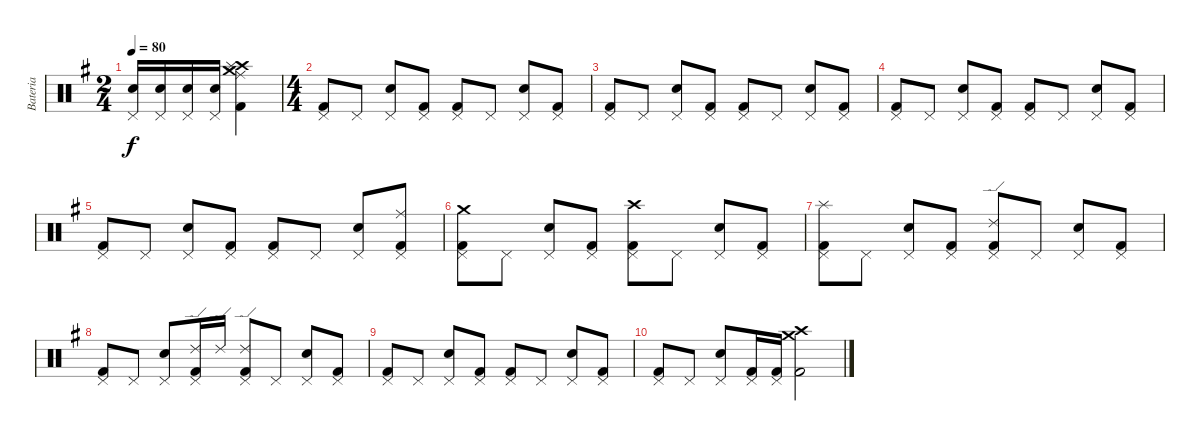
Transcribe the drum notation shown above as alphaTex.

\track ("Bateria" "Bateria") {instrument percussion}
\staff {score}
\articulation defaults
\ts (2 4)
\tempo 80
\clef neutral
\ks g
("Pedal Hi-Hat (hit)" "Snare (hit) 2").16{dy f} ("Pedal Hi-Hat (hit)" "Snare (hit) 2").16 ("Pedal Hi-Hat (hit)" "Snare (hit) 2").16 ("Pedal Hi-Hat (hit)" "Snare (hit) 2").16 ("Kick (hit) 2" "Crash medium (hit)" "Crash high (hit)" "Ride (middle)" "Splash (hit)").4 |
\ts (4 4)
("Pedal Hi-Hat (hit)" "Kick (hit) 2").8 "Pedal Hi-Hat (hit)".8 ("Pedal Hi-Hat (hit)" "Snare (hit) 2").8 ("Pedal Hi-Hat (hit)" "Kick (hit) 2").8 ("Pedal Hi-Hat (hit)" "Kick (hit) 2").8 "Pedal Hi-Hat (hit)".8 ("Pedal Hi-Hat (hit)" "Snare (hit) 2").8 ("Pedal Hi-Hat (hit)" "Kick (hit) 2").8 |
("Pedal Hi-Hat (hit)" "Kick (hit) 2").8 "Pedal Hi-Hat (hit)".8 ("Pedal Hi-Hat (hit)" "Snare (hit) 2").8 ("Pedal Hi-Hat (hit)" "Kick (hit) 2").8 ("Pedal Hi-Hat (hit)" "Kick (hit) 2").8 "Pedal Hi-Hat (hit)".8 ("Pedal Hi-Hat (hit)" "Snare (hit) 2").8 ("Pedal Hi-Hat (hit)" "Kick (hit) 2").8 |
("Pedal Hi-Hat (hit)" "Kick (hit) 2").8 "Pedal Hi-Hat (hit)".8 ("Pedal Hi-Hat (hit)" "Snare (hit) 2").8 ("Pedal Hi-Hat (hit)" "Kick (hit) 2").8 ("Pedal Hi-Hat (hit)" "Kick (hit) 2").8 "Pedal Hi-Hat (hit)".8 ("Pedal Hi-Hat (hit)" "Snare (hit) 2").8 ("Pedal Hi-Hat (hit)" "Kick (hit) 2").8 |
("Pedal Hi-Hat (hit)" "Kick (hit) 2").8 "Pedal Hi-Hat (hit)".8 ("Pedal Hi-Hat (hit)" "Snare (hit) 2").8 ("Pedal Hi-Hat (hit)" "Kick (hit) 2").8 ("Pedal Hi-Hat (hit)" "Kick (hit) 2").8 "Pedal Hi-Hat (hit)".8 ("Pedal Hi-Hat (hit)" "Snare (hit) 2").8 ("Pedal Hi-Hat (hit)" "Kick (hit) 2" "Ride (middle)").8 |
("Pedal Hi-Hat (hit)" "Kick (hit) 2" "Crash medium (hit)").8 "Pedal Hi-Hat (hit)".8 ("Pedal Hi-Hat (hit)" "Snare (hit) 2").8 ("Pedal Hi-Hat (hit)" "Kick (hit) 2").8 ("Pedal Hi-Hat (hit)" "Kick (hit) 2" "Crash high (hit)").8 "Pedal Hi-Hat (hit)".8 ("Pedal Hi-Hat (hit)" "Snare (hit) 2").8 ("Pedal Hi-Hat (hit)" "Kick (hit) 2").8 |
("Pedal Hi-Hat (hit)" "Kick (hit) 2" "Splash (hit)").8 "Pedal Hi-Hat (hit)".8 ("Pedal Hi-Hat (hit)" "Snare (hit) 2").8 ("Pedal Hi-Hat (hit)" "Kick (hit) 2").8 ("Pedal Hi-Hat (hit)" "Kick (hit) 2" "Ride (edge) 2").8 "Pedal Hi-Hat (hit)".8 ("Pedal Hi-Hat (hit)" "Snare (hit) 2").8 ("Pedal Hi-Hat (hit)" "Kick (hit) 2").8 |
("Pedal Hi-Hat (hit)" "Kick (hit) 2").8 "Pedal Hi-Hat (hit)".8 ("Pedal Hi-Hat (hit)" "Snare (hit) 2").8 ("Pedal Hi-Hat (hit)" "Kick (hit) 2" "Ride (edge) 2").16 "Ride (edge) 2".16 ("Pedal Hi-Hat (hit)" "Kick (hit) 2" "Ride (edge) 2").8 "Pedal Hi-Hat (hit)".8 ("Pedal Hi-Hat (hit)" "Snare (hit) 2").8 ("Pedal Hi-Hat (hit)" "Kick (hit) 2").8 |
("Pedal Hi-Hat (hit)" "Kick (hit) 2").8 "Pedal Hi-Hat (hit)".8 ("Pedal Hi-Hat (hit)" "Snare (hit) 2").8 ("Pedal Hi-Hat (hit)" "Kick (hit) 2").8 ("Pedal Hi-Hat (hit)" "Kick (hit) 2").8 "Pedal Hi-Hat (hit)".8 ("Pedal Hi-Hat (hit)" "Snare (hit) 2").8 ("Pedal Hi-Hat (hit)" "Kick (hit) 2").8 |
("Pedal Hi-Hat (hit)" "Kick (hit) 2").8 "Pedal Hi-Hat (hit)".8 ("Pedal Hi-Hat (hit)" "Snare (hit) 2").8 ("Pedal Hi-Hat (hit)" "Kick (hit) 2").16 ("Pedal Hi-Hat (hit)" "Kick (hit) 2").16 ("Kick (hit) 2" "Crash high (hit)" "Crash medium (hit)").2
